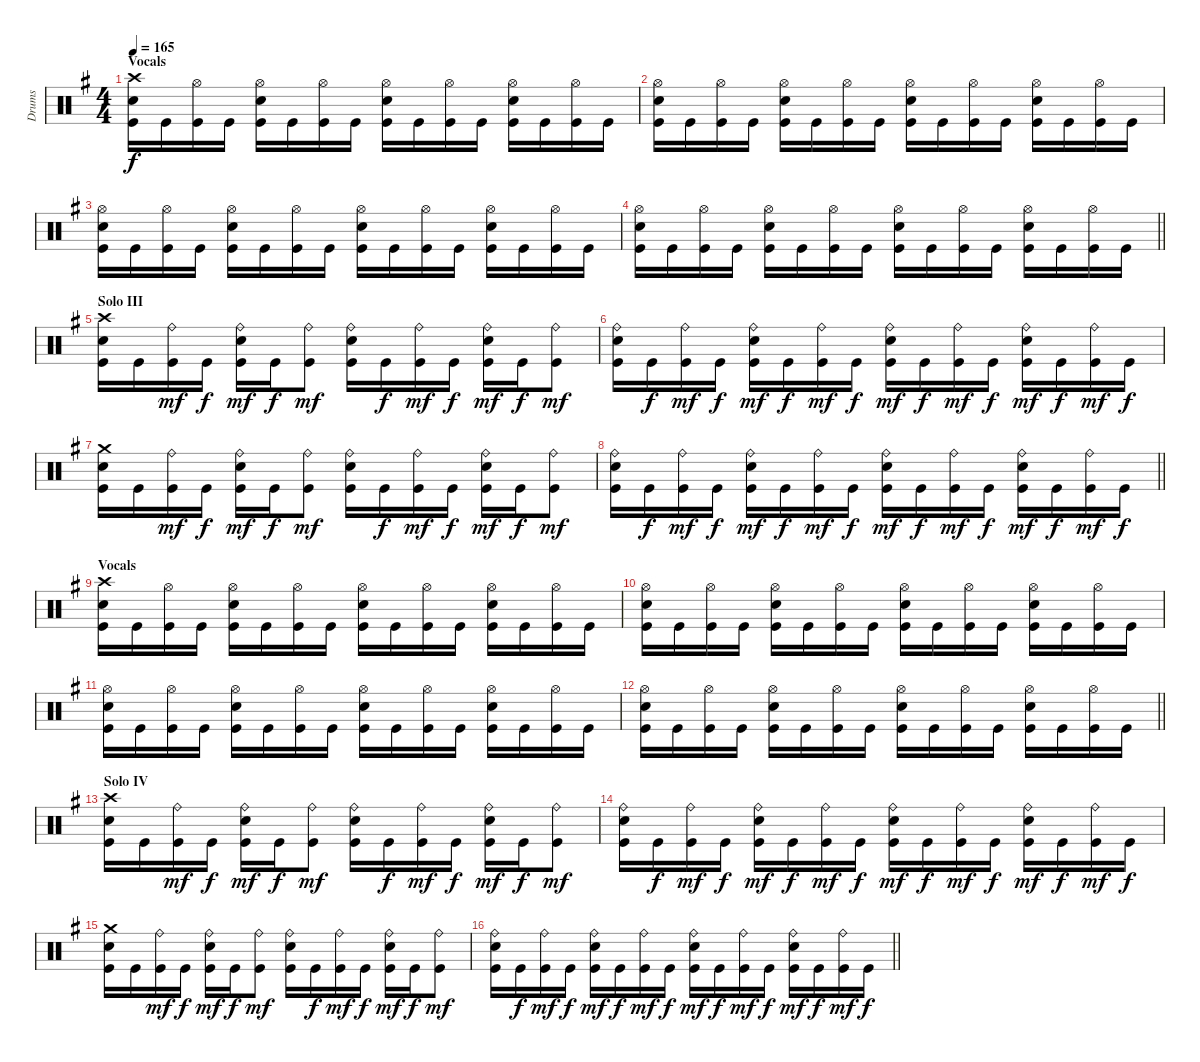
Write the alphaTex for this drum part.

\track ("Drums" "Drums") {instrument percussion}
\staff {score}
\articulation defaults
\ts (4 4)
\section ("" "Vocals")
\tempo 165
\clef neutral
\ks eminor
("Crash high (hit)" "Snare (hit) 2" "Kick (hit)").16{dy f} "Kick (hit)".16 ("Hi-Hat (open)" "Kick (hit)").16 "Kick (hit)".16 ("Hi-Hat (open)" "Snare (hit) 2" "Kick (hit)").16 "Kick (hit)".16 ("Hi-Hat (open)" "Kick (hit)").16 "Kick (hit)".16 ("Hi-Hat (open)" "Snare (hit) 2" "Kick (hit)").16 "Kick (hit)".16 ("Hi-Hat (open)" "Kick (hit)").16 "Kick (hit)".16 ("Hi-Hat (open)" "Snare (hit) 2" "Kick (hit)").16 "Kick (hit)".16 ("Hi-Hat (open)" "Kick (hit)").16 "Kick (hit)".16 |
("Hi-Hat (open)" "Snare (hit) 2" "Kick (hit)").16 "Kick (hit)".16 ("Hi-Hat (open)" "Kick (hit)").16 "Kick (hit)".16 ("Hi-Hat (open)" "Snare (hit) 2" "Kick (hit)").16 "Kick (hit)".16 ("Hi-Hat (open)" "Kick (hit)").16 "Kick (hit)".16 ("Hi-Hat (open)" "Snare (hit) 2" "Kick (hit)").16 "Kick (hit)".16 ("Hi-Hat (open)" "Kick (hit)").16 "Kick (hit)".16 ("Hi-Hat (open)" "Snare (hit) 2" "Kick (hit)").16 "Kick (hit)".16 ("Hi-Hat (open)" "Kick (hit)").16 "Kick (hit)".16 |
("Hi-Hat (open)" "Snare (hit) 2" "Kick (hit)").16 "Kick (hit)".16 ("Hi-Hat (open)" "Kick (hit)").16 "Kick (hit)".16 ("Hi-Hat (open)" "Snare (hit) 2" "Kick (hit)").16 "Kick (hit)".16 ("Hi-Hat (open)" "Kick (hit)").16 "Kick (hit)".16 ("Hi-Hat (open)" "Snare (hit) 2" "Kick (hit)").16 "Kick (hit)".16 ("Hi-Hat (open)" "Kick (hit)").16 "Kick (hit)".16 ("Hi-Hat (open)" "Snare (hit) 2" "Kick (hit)").16 "Kick (hit)".16 ("Hi-Hat (open)" "Kick (hit)").16 "Kick (hit)".16 |
\barLineRight lightlight
("Hi-Hat (open)" "Snare (hit) 2" "Kick (hit)").16 "Kick (hit)".16 ("Hi-Hat (open)" "Kick (hit)").16 "Kick (hit)".16 ("Hi-Hat (open)" "Snare (hit) 2" "Kick (hit)").16 "Kick (hit)".16 ("Hi-Hat (open)" "Kick (hit)").16 "Kick (hit)".16 ("Hi-Hat (open)" "Snare (hit) 2" "Kick (hit)").16 "Kick (hit)".16 ("Hi-Hat (open)" "Kick (hit)").16 "Kick (hit)".16 ("Hi-Hat (open)" "Snare (hit) 2" "Kick (hit)").16 "Kick (hit)".16 ("Hi-Hat (open)" "Kick (hit)").16 "Kick (hit)".16 |
\section ("" "Solo III")
("Crash high (hit)" "Snare (hit) 2" "Kick (hit)").16 "Kick (hit)".16 ("Ride (bell)" "Kick (hit)").16{dy mf} "Kick (hit)".16{dy f} ("Ride (bell)" "Snare (hit) 2" "Kick (hit)").16{dy mf} "Kick (hit)".16{dy f} ("Ride (bell)" "Kick (hit)").8{dy mf} ("Ride (bell)" "Snare (hit) 2" "Kick (hit)").16 "Kick (hit)".16{dy f} ("Ride (bell)" "Kick (hit)").16{dy mf} "Kick (hit)".16{dy f} ("Ride (bell)" "Snare (hit) 2" "Kick (hit)").16{dy mf} "Kick (hit)".16{dy f} ("Ride (bell)" "Kick (hit)").8{dy mf} |
("Ride (bell)" "Snare (hit) 2" "Kick (hit)").16 "Kick (hit)".16{dy f} ("Ride (bell)" "Kick (hit)").16{dy mf} "Kick (hit)".16{dy f} ("Ride (bell)" "Snare (hit) 2" "Kick (hit)").16{dy mf} "Kick (hit)".16{dy f} ("Ride (bell)" "Kick (hit)").16{dy mf} "Kick (hit)".16{dy f} ("Ride (bell)" "Snare (hit) 2" "Kick (hit)").16{dy mf} "Kick (hit)".16{dy f} ("Ride (bell)" "Kick (hit)").16{dy mf} "Kick (hit)".16{dy f} ("Ride (bell)" "Snare (hit) 2" "Kick (hit)").16{dy mf} "Kick (hit)".16{dy f} ("Ride (bell)" "Kick (hit)").16{dy mf} "Kick (hit)".16{dy f} |
("Crash medium (hit)" "Snare (hit) 2" "Kick (hit)").16 "Kick (hit)".16 ("Ride (bell)" "Kick (hit)").16{dy mf} "Kick (hit)".16{dy f} ("Ride (bell)" "Snare (hit) 2" "Kick (hit)").16{dy mf} "Kick (hit)".16{dy f} ("Ride (bell)" "Kick (hit)").8{dy mf} ("Ride (bell)" "Snare (hit) 2" "Kick (hit)").16 "Kick (hit)".16{dy f} ("Ride (bell)" "Kick (hit)").16{dy mf} "Kick (hit)".16{dy f} ("Ride (bell)" "Snare (hit) 2" "Kick (hit)").16{dy mf} "Kick (hit)".16{dy f} ("Ride (bell)" "Kick (hit)").8{dy mf} |
\barLineRight lightlight
("Ride (bell)" "Snare (hit) 2" "Kick (hit)").16 "Kick (hit)".16{dy f} ("Ride (bell)" "Kick (hit)").16{dy mf} "Kick (hit)".16{dy f} ("Ride (bell)" "Snare (hit) 2" "Kick (hit)").16{dy mf} "Kick (hit)".16{dy f} ("Ride (bell)" "Kick (hit)").16{dy mf} "Kick (hit)".16{dy f} ("Ride (bell)" "Snare (hit) 2" "Kick (hit)").16{dy mf} "Kick (hit)".16{dy f} ("Ride (bell)" "Kick (hit)").16{dy mf} "Kick (hit)".16{dy f} ("Ride (bell)" "Snare (hit) 2" "Kick (hit)").16{dy mf} "Kick (hit)".16{dy f} ("Ride (bell)" "Kick (hit)").16{dy mf} "Kick (hit)".16{dy f} |
\section ("" "Vocals")
("Crash high (hit)" "Snare (hit) 2" "Kick (hit)").16 "Kick (hit)".16 ("Hi-Hat (open)" "Kick (hit)").16 "Kick (hit)".16 ("Hi-Hat (open)" "Snare (hit) 2" "Kick (hit)").16 "Kick (hit)".16 ("Hi-Hat (open)" "Kick (hit)").16 "Kick (hit)".16 ("Hi-Hat (open)" "Snare (hit) 2" "Kick (hit)").16 "Kick (hit)".16 ("Hi-Hat (open)" "Kick (hit)").16 "Kick (hit)".16 ("Hi-Hat (open)" "Snare (hit) 2" "Kick (hit)").16 "Kick (hit)".16 ("Hi-Hat (open)" "Kick (hit)").16 "Kick (hit)".16 |
("Hi-Hat (open)" "Snare (hit) 2" "Kick (hit)").16 "Kick (hit)".16 ("Hi-Hat (open)" "Kick (hit)").16 "Kick (hit)".16 ("Hi-Hat (open)" "Snare (hit) 2" "Kick (hit)").16 "Kick (hit)".16 ("Hi-Hat (open)" "Kick (hit)").16 "Kick (hit)".16 ("Hi-Hat (open)" "Snare (hit) 2" "Kick (hit)").16 "Kick (hit)".16 ("Hi-Hat (open)" "Kick (hit)").16 "Kick (hit)".16 ("Hi-Hat (open)" "Snare (hit) 2" "Kick (hit)").16 "Kick (hit)".16 ("Hi-Hat (open)" "Kick (hit)").16 "Kick (hit)".16 |
("Hi-Hat (open)" "Snare (hit) 2" "Kick (hit)").16 "Kick (hit)".16 ("Hi-Hat (open)" "Kick (hit)").16 "Kick (hit)".16 ("Hi-Hat (open)" "Snare (hit) 2" "Kick (hit)").16 "Kick (hit)".16 ("Hi-Hat (open)" "Kick (hit)").16 "Kick (hit)".16 ("Hi-Hat (open)" "Snare (hit) 2" "Kick (hit)").16 "Kick (hit)".16 ("Hi-Hat (open)" "Kick (hit)").16 "Kick (hit)".16 ("Hi-Hat (open)" "Snare (hit) 2" "Kick (hit)").16 "Kick (hit)".16 ("Hi-Hat (open)" "Kick (hit)").16 "Kick (hit)".16 |
\barLineRight lightlight
("Hi-Hat (open)" "Snare (hit) 2" "Kick (hit)").16 "Kick (hit)".16 ("Hi-Hat (open)" "Kick (hit)").16 "Kick (hit)".16 ("Hi-Hat (open)" "Snare (hit) 2" "Kick (hit)").16 "Kick (hit)".16 ("Hi-Hat (open)" "Kick (hit)").16 "Kick (hit)".16 ("Hi-Hat (open)" "Snare (hit) 2" "Kick (hit)").16 "Kick (hit)".16 ("Hi-Hat (open)" "Kick (hit)").16 "Kick (hit)".16 ("Hi-Hat (open)" "Snare (hit) 2" "Kick (hit)").16 "Kick (hit)".16 ("Hi-Hat (open)" "Kick (hit)").16 "Kick (hit)".16 |
\section ("" "Solo IV")
("Crash high (hit)" "Snare (hit) 2" "Kick (hit)").16 "Kick (hit)".16 ("Ride (bell)" "Kick (hit)").16{dy mf} "Kick (hit)".16{dy f} ("Ride (bell)" "Snare (hit) 2" "Kick (hit)").16{dy mf} "Kick (hit)".16{dy f} ("Ride (bell)" "Kick (hit)").8{dy mf} ("Ride (bell)" "Snare (hit) 2" "Kick (hit)").16 "Kick (hit)".16{dy f} ("Ride (bell)" "Kick (hit)").16{dy mf} "Kick (hit)".16{dy f} ("Ride (bell)" "Snare (hit) 2" "Kick (hit)").16{dy mf} "Kick (hit)".16{dy f} ("Ride (bell)" "Kick (hit)").8{dy mf} |
("Ride (bell)" "Snare (hit) 2" "Kick (hit)").16 "Kick (hit)".16{dy f} ("Ride (bell)" "Kick (hit)").16{dy mf} "Kick (hit)".16{dy f} ("Ride (bell)" "Snare (hit) 2" "Kick (hit)").16{dy mf} "Kick (hit)".16{dy f} ("Ride (bell)" "Kick (hit)").16{dy mf} "Kick (hit)".16{dy f} ("Ride (bell)" "Snare (hit) 2" "Kick (hit)").16{dy mf} "Kick (hit)".16{dy f} ("Ride (bell)" "Kick (hit)").16{dy mf} "Kick (hit)".16{dy f} ("Ride (bell)" "Snare (hit) 2" "Kick (hit)").16{dy mf} "Kick (hit)".16{dy f} ("Ride (bell)" "Kick (hit)").16{dy mf} "Kick (hit)".16{dy f} |
("Crash medium (hit)" "Snare (hit) 2" "Kick (hit)").16 "Kick (hit)".16 ("Ride (bell)" "Kick (hit)").16{dy mf} "Kick (hit)".16{dy f} ("Ride (bell)" "Snare (hit) 2" "Kick (hit)").16{dy mf} "Kick (hit)".16{dy f} ("Ride (bell)" "Kick (hit)").8{dy mf} ("Ride (bell)" "Snare (hit) 2" "Kick (hit)").16 "Kick (hit)".16{dy f} ("Ride (bell)" "Kick (hit)").16{dy mf} "Kick (hit)".16{dy f} ("Ride (bell)" "Snare (hit) 2" "Kick (hit)").16{dy mf} "Kick (hit)".16{dy f} ("Ride (bell)" "Kick (hit)").8{dy mf} |
\barLineRight lightlight
("Ride (bell)" "Snare (hit) 2" "Kick (hit)").16 "Kick (hit)".16{dy f} ("Ride (bell)" "Kick (hit)").16{dy mf} "Kick (hit)".16{dy f} ("Ride (bell)" "Snare (hit) 2" "Kick (hit)").16{dy mf} "Kick (hit)".16{dy f} ("Ride (bell)" "Kick (hit)").16{dy mf} "Kick (hit)".16{dy f} ("Ride (bell)" "Snare (hit) 2" "Kick (hit)").16{dy mf} "Kick (hit)".16{dy f} ("Ride (bell)" "Kick (hit)").16{dy mf} "Kick (hit)".16{dy f} ("Ride (bell)" "Snare (hit) 2" "Kick (hit)").16{dy mf} "Kick (hit)".16{dy f} ("Ride (bell)" "Kick (hit)").16{dy mf} "Kick (hit)".16{dy f}
